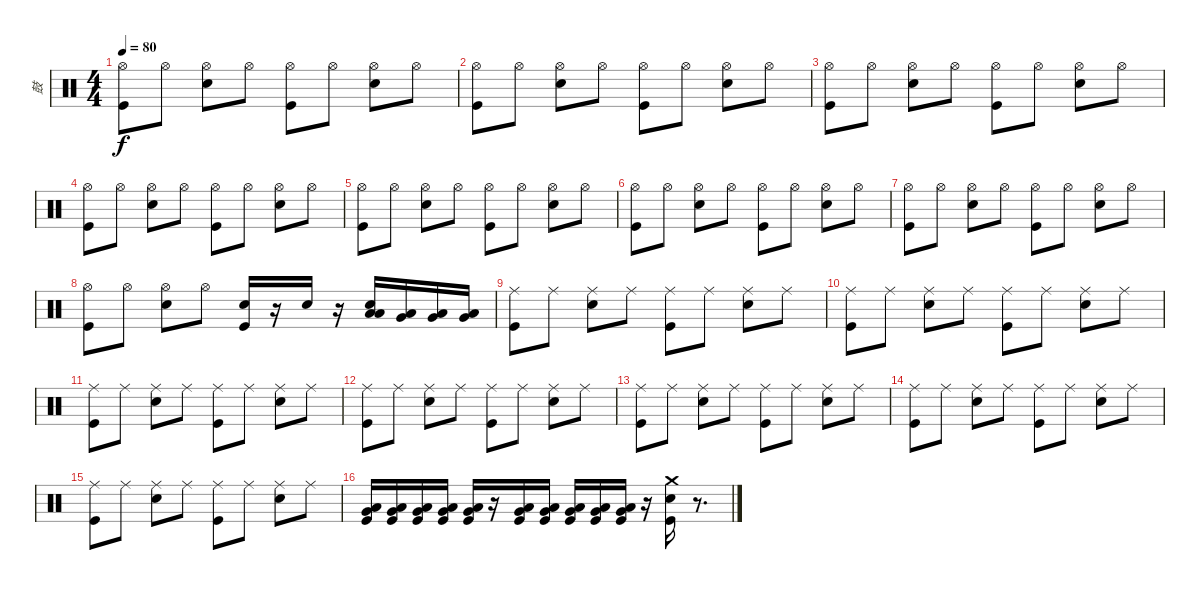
\track ("鼓" "鼓") {instrument percussion}
\staff {score}
\articulation defaults
\ts (4 4)
\tempo 80
\clef neutral
\ks c
("Hi-Hat (open)" "Kick (hit)").8{dy f} "Hi-Hat (open)".8 ("Snare (hit) 2" "Hi-Hat (open)").8 "Hi-Hat (open)".8 ("Hi-Hat (open)" "Kick (hit)").8 "Hi-Hat (open)".8 ("Snare (hit) 2" "Hi-Hat (open)").8 "Hi-Hat (open)".8 |
("Hi-Hat (open)" "Kick (hit)").8 "Hi-Hat (open)".8 ("Snare (hit) 2" "Hi-Hat (open)").8 "Hi-Hat (open)".8 ("Hi-Hat (open)" "Kick (hit)").8 "Hi-Hat (open)".8 ("Snare (hit) 2" "Hi-Hat (open)").8 "Hi-Hat (open)".8 |
("Hi-Hat (open)" "Kick (hit)").8 "Hi-Hat (open)".8 ("Snare (hit) 2" "Hi-Hat (open)").8 "Hi-Hat (open)".8 ("Hi-Hat (open)" "Kick (hit)").8 "Hi-Hat (open)".8 ("Snare (hit) 2" "Hi-Hat (open)").8 "Hi-Hat (open)".8 |
("Hi-Hat (open)" "Kick (hit)").8 "Hi-Hat (open)".8 ("Snare (hit) 2" "Hi-Hat (open)").8 "Hi-Hat (open)".8 ("Hi-Hat (open)" "Kick (hit)").8 "Hi-Hat (open)".8 ("Snare (hit) 2" "Hi-Hat (open)").8 "Hi-Hat (open)".8 |
("Hi-Hat (open)" "Kick (hit)").8 "Hi-Hat (open)".8 ("Snare (hit) 2" "Hi-Hat (open)").8 "Hi-Hat (open)".8 ("Hi-Hat (open)" "Kick (hit)").8 "Hi-Hat (open)".8 ("Snare (hit) 2" "Hi-Hat (open)").8 "Hi-Hat (open)".8 |
("Hi-Hat (open)" "Kick (hit)").8 "Hi-Hat (open)".8 ("Snare (hit) 2" "Hi-Hat (open)").8 "Hi-Hat (open)".8 ("Hi-Hat (open)" "Kick (hit)").8 "Hi-Hat (open)".8 ("Snare (hit) 2" "Hi-Hat (open)").8 "Hi-Hat (open)".8 |
("Hi-Hat (open)" "Kick (hit)").8 "Hi-Hat (open)".8 ("Snare (hit) 2" "Hi-Hat (open)").8 "Hi-Hat (open)".8 ("Hi-Hat (open)" "Kick (hit)").8 "Hi-Hat (open)".8 ("Snare (hit) 2" "Hi-Hat (open)").8 "Hi-Hat (open)".8 |
("Hi-Hat (open)" "Kick (hit)").8 "Hi-Hat (open)".8 ("Hi-Hat (open)" "Snare (hit) 2").8 "Hi-Hat (open)".8 ("Snare (hit) 2" "Kick (hit)").16 r.16 "Snare (hit) 2".16 r.16 ("Snare (hit) 2" "Low Tom (hit)" "Low Floor Tom (hit)").16 ("Low Tom (hit)" "Very Low Tom (hit)").16 ("Very Low Tom (hit)" "Low Tom (hit)").16 ("Very Low Tom (hit)" "Low Floor Tom (hit)").16 |
("Ride (middle)" "Kick (hit)").8 "Ride (middle)".8 ("Ride (middle)" "Snare (hit) 2").8 "Ride (middle)".8 ("Ride (middle)" "Kick (hit)").8 "Ride (middle)".8 ("Ride (middle)" "Snare (hit) 2").8 "Ride (middle)".8 |
("Ride (middle)" "Kick (hit)").8 "Ride (middle)".8 ("Ride (middle)" "Snare (hit) 2").8 "Ride (middle)".8 ("Ride (middle)" "Kick (hit)").8 "Ride (middle)".8 ("Ride (middle)" "Snare (hit) 2").8 "Ride (middle)".8 |
("Ride (middle)" "Kick (hit)").8 "Ride (middle)".8 ("Ride (middle)" "Snare (hit) 2").8 "Ride (middle)".8 ("Ride (middle)" "Kick (hit)").8 "Ride (middle)".8 ("Ride (middle)" "Snare (hit) 2").8 "Ride (middle)".8 |
("Ride (middle)" "Kick (hit)").8 "Ride (middle)".8 ("Ride (middle)" "Snare (hit) 2").8 "Ride (middle)".8 ("Ride (middle)" "Kick (hit)").8 "Ride (middle)".8 ("Ride (middle)" "Snare (hit) 2").8 "Ride (middle)".8 |
("Ride (middle)" "Kick (hit)").8 "Ride (middle)".8 ("Ride (middle)" "Snare (hit) 2").8 "Ride (middle)".8 ("Ride (middle)" "Kick (hit)").8 "Ride (middle)".8 ("Ride (middle)" "Snare (hit) 2").8 "Ride (middle)".8 |
("Ride (middle)" "Kick (hit)").8 "Ride (middle)".8 ("Ride (middle)" "Snare (hit) 2").8 "Ride (middle)".8 ("Ride (middle)" "Kick (hit)").8 "Ride (middle)".8 ("Ride (middle)" "Snare (hit) 2").8 "Ride (middle)".8 |
("Ride (middle)" "Kick (hit)").8 "Ride (middle)".8 ("Ride (middle)" "Snare (hit) 2").8 "Ride (middle)".8 ("Ride (middle)" "Kick (hit)").8 "Ride (middle)".8 ("Ride (middle)" "Snare (hit) 2").8 "Ride (middle)".8 |
("Very Low Tom (hit)" "Low Floor Tom (hit)" "Kick (hit)").16 ("Very Low Tom (hit)" "Low Floor Tom (hit)" "Kick (hit)").16 ("Very Low Tom (hit)" "Low Floor Tom (hit)" "Kick (hit)").16 ("Very Low Tom (hit)" "Low Floor Tom (hit)" "Kick (hit)").16 ("Very Low Tom (hit)" "Low Floor Tom (hit)" "Kick (hit)").16 r.16 ("Very Low Tom (hit)" "Low Floor Tom (hit)" "Kick (hit)").16 ("Very Low Tom (hit)" "Low Floor Tom (hit)" "Kick (hit)").16 ("Very Low Tom (hit)" "Low Floor Tom (hit)" "Kick (hit)").16 ("Very Low Tom (hit)" "Low Floor Tom (hit)" "Kick (hit)").16 ("Very Low Tom (hit)" "Low Floor Tom (hit)" "Kick (hit)").16 r.16 ("Snare (hit) 2" "Crash medium (hit)" "Kick (hit)").16 r.8{d}
